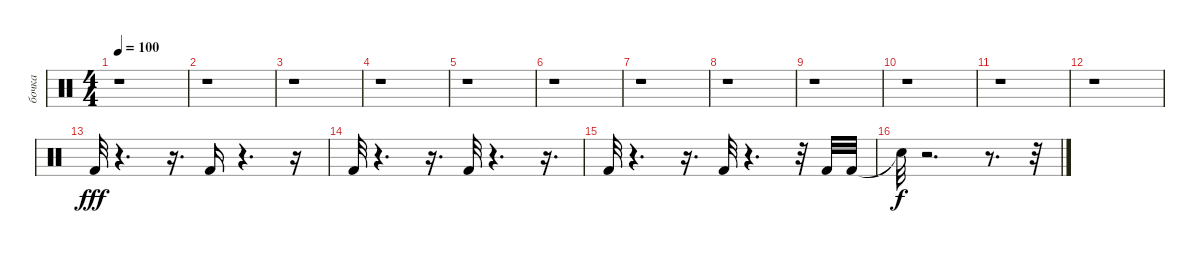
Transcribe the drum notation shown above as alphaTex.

\track ("бочка" "бочка") {instrument percussion}
\staff {score}
\articulation defaults
\ts (4 4)
\tempo 100
\clef neutral
\ks c
r.1{dy fff} |
r.1 |
r.1 |
r.1 |
r.1 |
r.1 |
r.1 |
r.1 |
r.1 |
r.1 |
r.1 |
r.1 |
"Kick (hit) 2".32 r.4{d} r.16{d} "Kick (hit) 2".16 r.4{d} r.16 |
"Kick (hit) 2".32 r.4{d} r.16{d} "Kick (hit) 2".32 r.4{d} r.16{d} |
"Kick (hit) 2".32 r.4{d} r.16{d} "Kick (hit) 2".32 r.4{d} r.32 "Kick (hit) 2".32 "Kick (hit) 2".32 |
"Snare (hit)"{t}.32{dy f} r.2{d} r.8{d} r.32
